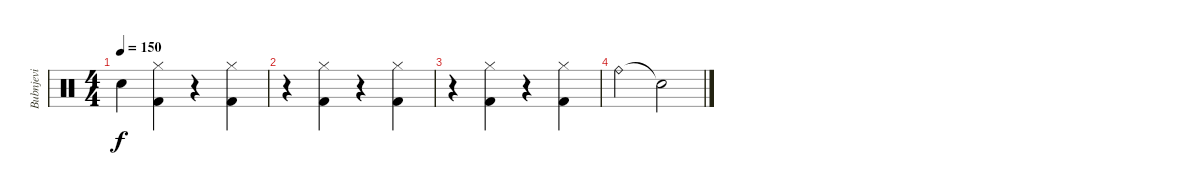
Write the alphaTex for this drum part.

\track ("Bubnjevi" "Bubnjevi") {instrument percussion}
\staff {score}
\articulation defaults
\ts (4 4)
\tempo 150
\clef neutral
\ks c "Snare (hit)"{t}.4{dy f}
("Hi-Hat (closed)" "Kick (hit) 2").4 r.4 ("Hi-Hat (closed)" "Kick (hit) 2").4 |
r.4 ("Hi-Hat (closed)" "Kick (hit) 2").4 r.4 ("Hi-Hat (closed)" "Kick (hit) 2").4 |
r.4 ("Hi-Hat (closed)" "Kick (hit) 2").4 r.4 ("Hi-Hat (closed)" "Kick (hit) 2").4 |
"Ride (bell)".2 "Snare (hit)"{t}.2
